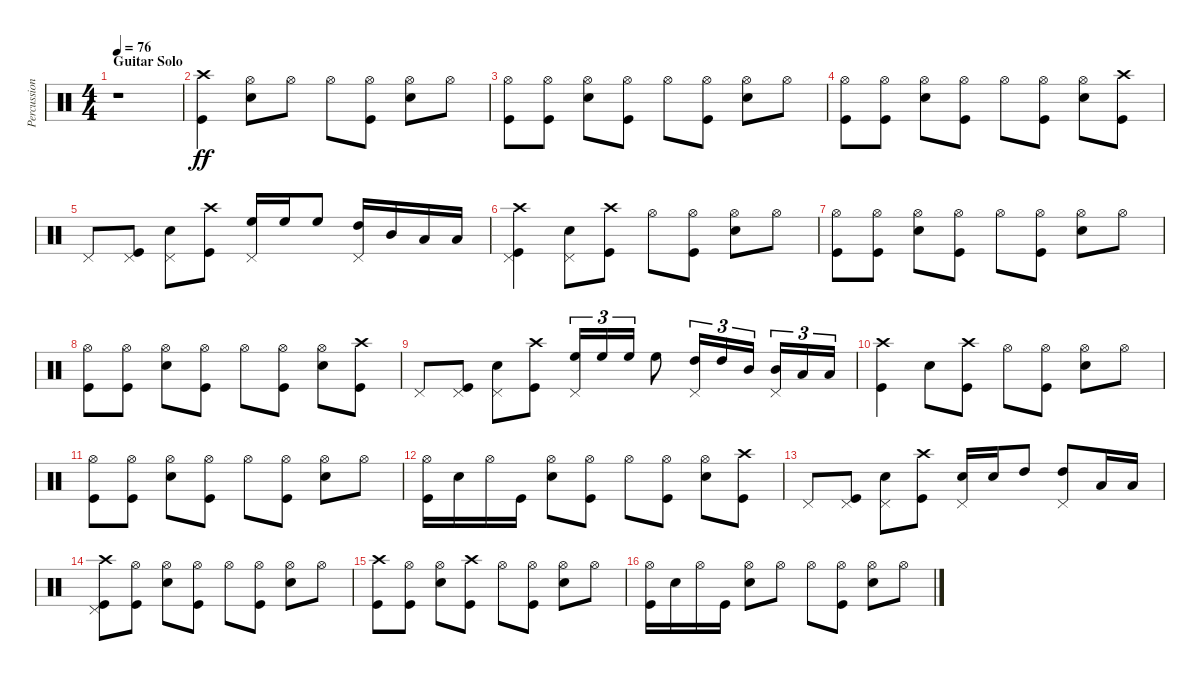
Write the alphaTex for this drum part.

\track ("Percussion" "Percussion") {instrument percussion}
\staff {score}
\articulation defaults
\ts (4 4)
\section ("" "Guitar Solo")
\tempo 76
\clef neutral
\ks c
r.1{dy ff} |
("Crash high (hit)" "Kick (hit)").4 ("Hi-Hat (open)" "Snare (hit) 2").8 "Hi-Hat (open)".8 "Hi-Hat (open)".8 ("Hi-Hat (open)" "Kick (hit)").8 ("Hi-Hat (open)" "Snare (hit) 2").8 "Hi-Hat (open)".8 |
("Hi-Hat (open)" "Kick (hit)").8 ("Hi-Hat (open)" "Kick (hit)").8 ("Hi-Hat (open)" "Snare (hit) 2").8 ("Hi-Hat (open)" "Kick (hit)").8 "Hi-Hat (open)".8 ("Hi-Hat (open)" "Kick (hit)").8 ("Hi-Hat (open)" "Snare (hit) 2").8 "Hi-Hat (open)".8 |
("Hi-Hat (open)" "Kick (hit)").8 ("Hi-Hat (open)" "Kick (hit)").8 ("Hi-Hat (open)" "Snare (hit) 2").8 ("Hi-Hat (open)" "Kick (hit)").8 "Hi-Hat (open)".8 ("Hi-Hat (open)" "Kick (hit)").8 ("Hi-Hat (open)" "Snare (hit) 2").8 ("Crash high (hit)" "Kick (hit)").8 |
"Pedal Hi-Hat (hit)".8 ("Pedal Hi-Hat (hit)" "Kick (hit)").8 ("Pedal Hi-Hat (hit)" "Snare (hit) 2").8 ("Crash high (hit)" "Kick (hit)").8 ("Pedal Hi-Hat (hit)" "High Floor Tom (hit)").16 "High Floor Tom (hit)".16 "High Floor Tom (hit)".8 ("Pedal Hi-Hat (hit)" "High Tom (hit)").16 "Mid Tom (hit)".16 "Low Tom (hit)".16 "Low Tom (hit)".16 |
("Pedal Hi-Hat (hit)" "Crash high (hit)" "Kick (hit)").4 ("Pedal Hi-Hat (hit)" "Snare (hit) 2").8 ("Crash high (hit)" "Kick (hit)").8 "Hi-Hat (open)".8 ("Hi-Hat (open)" "Kick (hit)").8 ("Hi-Hat (open)" "Snare (hit) 2").8 "Hi-Hat (open)".8 |
("Hi-Hat (open)" "Kick (hit)").8 ("Hi-Hat (open)" "Kick (hit)").8 ("Hi-Hat (open)" "Snare (hit) 2").8 ("Hi-Hat (open)" "Kick (hit)").8 "Hi-Hat (open)".8 ("Hi-Hat (open)" "Kick (hit)").8 ("Hi-Hat (open)" "Snare (hit) 2").8 "Hi-Hat (open)".8 |
("Hi-Hat (open)" "Kick (hit)").8 ("Hi-Hat (open)" "Kick (hit)").8 ("Hi-Hat (open)" "Snare (hit) 2").8 ("Hi-Hat (open)" "Kick (hit)").8 "Hi-Hat (open)".8 ("Hi-Hat (open)" "Kick (hit)").8 ("Hi-Hat (open)" "Snare (hit) 2").8 ("Crash high (hit)" "Kick (hit)").8 |
"Pedal Hi-Hat (hit)".8 ("Pedal Hi-Hat (hit)" "Kick (hit)").8 ("Pedal Hi-Hat (hit)" "Snare (hit) 2").8 ("Crash high (hit)" "Kick (hit)").8 ("Pedal Hi-Hat (hit)" "High Floor Tom (hit)").16{tu (3 2)} "High Floor Tom (hit)".16{tu (3 2)} "High Floor Tom (hit)".16{tu (3 2)} "High Floor Tom (hit)".8 ("Pedal Hi-Hat (hit)" "High Tom (hit)").16{tu (3 2)} "High Tom (hit)".16{tu (3 2)} "Mid Tom (hit)".16{tu (3 2)} ("Pedal Hi-Hat (hit)" "Mid Tom (hit)").16{tu (3 2)} "Low Tom (hit)".16{tu (3 2)} "Low Tom (hit)".16{tu (3 2)} |
("Crash high (hit)" "Kick (hit)").4 "Snare (hit) 2".8 ("Crash high (hit)" "Kick (hit)").8 "Hi-Hat (open)".8 ("Hi-Hat (open)" "Kick (hit)").8 ("Hi-Hat (open)" "Snare (hit) 2").8 "Hi-Hat (open)".8 |
("Hi-Hat (open)" "Kick (hit)").8 ("Hi-Hat (open)" "Kick (hit)").8 ("Hi-Hat (open)" "Snare (hit) 2").8 ("Hi-Hat (open)" "Kick (hit)").8 "Hi-Hat (open)".8 ("Hi-Hat (open)" "Kick (hit)").8 ("Hi-Hat (open)" "Snare (hit) 2").8 "Hi-Hat (open)".8 |
("Hi-Hat (open)" "Kick (hit)").16 "Snare (hit) 2".16 "Hi-Hat (open)".16 "Kick (hit)".16 ("Hi-Hat (open)" "Snare (hit) 2").8 ("Hi-Hat (open)" "Kick (hit)").8 "Hi-Hat (open)".8 ("Hi-Hat (open)" "Kick (hit)").8 ("Hi-Hat (open)" "Snare (hit) 2").8 ("Crash high (hit)" "Kick (hit)").8 |
"Pedal Hi-Hat (hit)".8 ("Pedal Hi-Hat (hit)" "Kick (hit)").8 ("Pedal Hi-Hat (hit)" "Snare (hit) 2").8 ("Crash high (hit)" "Kick (hit)").8 ("Pedal Hi-Hat (hit)" "Snare (hit) 2").16 "Snare (hit) 2".16 "High Tom (hit)".8 ("Pedal Hi-Hat (hit)" "High Tom (hit)").8 "Low Tom (hit)".16 "Low Tom (hit)".16 |
("Crash high (hit)" "Pedal Hi-Hat (hit)" "Kick (hit)").8 ("Hi-Hat (open)" "Kick (hit)").8 ("Hi-Hat (open)" "Snare (hit) 2").8 ("Hi-Hat (open)" "Kick (hit)").8 "Hi-Hat (open)".8 ("Hi-Hat (open)" "Kick (hit)").8 ("Hi-Hat (open)" "Snare (hit) 2").8 "Hi-Hat (open)".8 |
("Crash high (hit)" "Kick (hit)").8 ("Hi-Hat (open)" "Kick (hit)").8 ("Hi-Hat (open)" "Snare (hit) 2").8 ("Crash high (hit)" "Kick (hit)").8 "Hi-Hat (open)".8 ("Hi-Hat (open)" "Kick (hit)").8 ("Hi-Hat (open)" "Snare (hit) 2").8 "Hi-Hat (open)".8 |
("Hi-Hat (open)" "Kick (hit)").16 "Snare (hit) 2".16 "Hi-Hat (open)".16 "Kick (hit)".16 ("Hi-Hat (open)" "Snare (hit) 2").8 "Hi-Hat (open)".8 "Hi-Hat (open)".8 ("Hi-Hat (open)" "Kick (hit)").8 ("Hi-Hat (open)" "Snare (hit) 2").8 "Hi-Hat (open)".8
